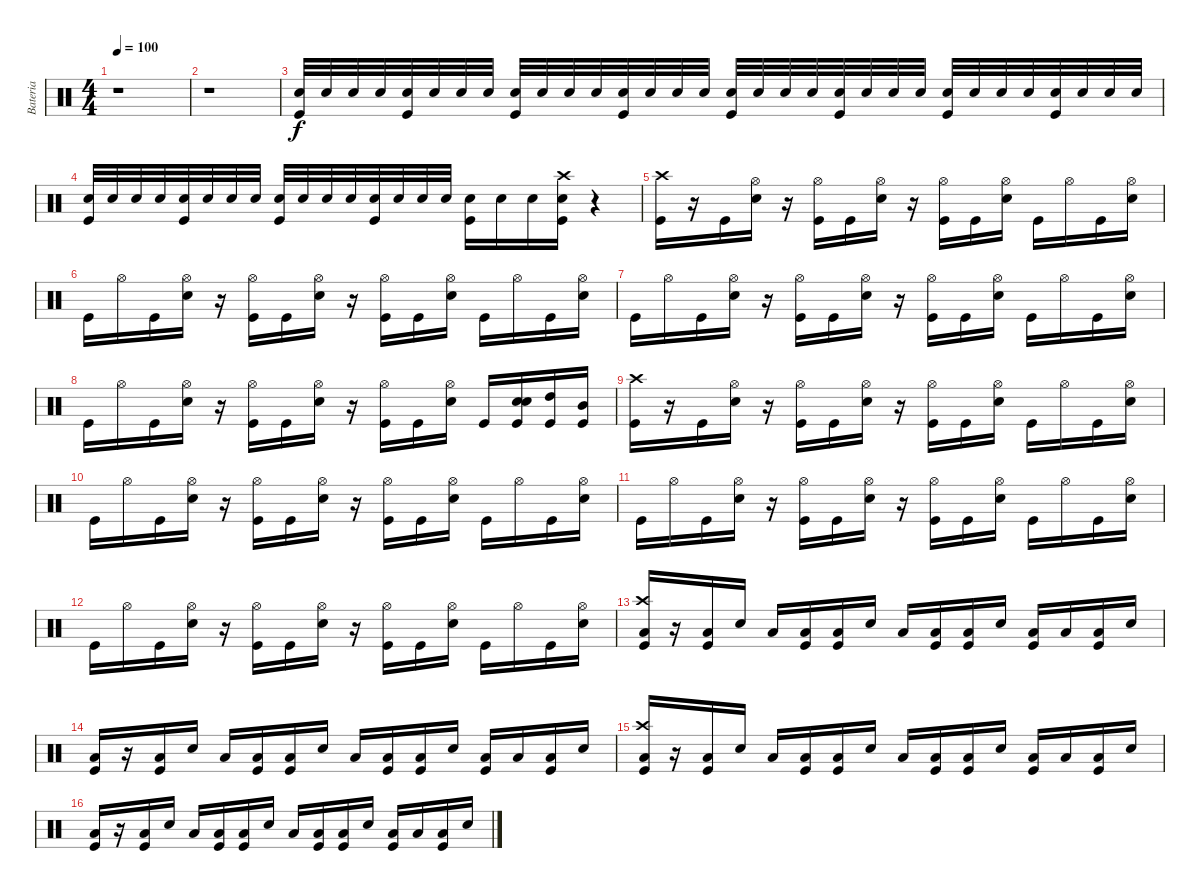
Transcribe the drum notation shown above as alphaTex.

\track ("Bateria" "Bateria") {instrument percussion}
\staff {score}
\articulation defaults
\ts (4 4)
\tempo 100
\clef neutral
\ks c
r.1{dy f} |
r.1 |
("Snare (hit) 2" "Kick (hit)").32 "Snare (hit) 2".32 "Snare (hit) 2".32 "Snare (hit) 2".32 ("Snare (hit) 2" "Kick (hit)").32 "Snare (hit) 2".32 "Snare (hit) 2".32 "Snare (hit) 2".32 ("Snare (hit) 2" "Kick (hit)").32 "Snare (hit) 2".32 "Snare (hit) 2".32 "Snare (hit) 2".32 ("Snare (hit) 2" "Kick (hit)").32 "Snare (hit) 2".32 "Snare (hit) 2".32 "Snare (hit) 2".32 ("Snare (hit) 2" "Kick (hit)").32 "Snare (hit) 2".32 "Snare (hit) 2".32 "Snare (hit) 2".32 ("Snare (hit) 2" "Kick (hit)").32 "Snare (hit) 2".32 "Snare (hit) 2".32 "Snare (hit) 2".32 ("Snare (hit) 2" "Kick (hit)").32 "Snare (hit) 2".32 "Snare (hit) 2".32 "Snare (hit) 2".32 ("Snare (hit) 2" "Kick (hit)").32 "Snare (hit) 2".32 "Snare (hit) 2".32 "Snare (hit) 2".32 |
("Snare (hit) 2" "Kick (hit)").32 "Snare (hit) 2".32 "Snare (hit) 2".32 "Snare (hit) 2".32 ("Snare (hit) 2" "Kick (hit)").32 "Snare (hit) 2".32 "Snare (hit) 2".32 "Snare (hit) 2".32 ("Snare (hit) 2" "Kick (hit)").32 "Snare (hit) 2".32 "Snare (hit) 2".32 "Snare (hit) 2".32 ("Snare (hit) 2" "Kick (hit)").32 "Snare (hit) 2".32 "Snare (hit) 2".32 "Snare (hit) 2".32 ("Snare (hit) 2" "Kick (hit)").16 "Snare (hit) 2".16 "Snare (hit) 2".16 ("Snare (hit) 2" "Crash high (hit)" "Kick (hit)").16 r.4 |
("Crash high (hit)" "Kick (hit)").16 r.16 "Kick (hit)".16 ("Snare (hit) 2" "Hi-Hat (open)").16 r.16 ("Hi-Hat (open)" "Kick (hit)").16 "Kick (hit)".16 ("Snare (hit) 2" "Hi-Hat (open)").16 r.16 ("Hi-Hat (open)" "Kick (hit)").16 "Kick (hit)".16 ("Snare (hit) 2" "Hi-Hat (open)").16 "Kick (hit)".16 "Hi-Hat (open)".16 "Kick (hit)".16 ("Snare (hit) 2" "Hi-Hat (open)").16 |
"Kick (hit)".16 "Hi-Hat (open)".16 "Kick (hit)".16 ("Snare (hit) 2" "Hi-Hat (open)").16 r.16 ("Hi-Hat (open)" "Kick (hit)").16 "Kick (hit)".16 ("Snare (hit) 2" "Hi-Hat (open)").16 r.16 ("Hi-Hat (open)" "Kick (hit)").16 "Kick (hit)".16 ("Snare (hit) 2" "Hi-Hat (open)").16 "Kick (hit)".16 "Hi-Hat (open)".16 "Kick (hit)".16 ("Snare (hit) 2" "Hi-Hat (open)").16 |
"Kick (hit)".16 "Hi-Hat (open)".16 "Kick (hit)".16 ("Snare (hit) 2" "Hi-Hat (open)").16 r.16 ("Hi-Hat (open)" "Kick (hit)").16 "Kick (hit)".16 ("Snare (hit) 2" "Hi-Hat (open)").16 r.16 ("Hi-Hat (open)" "Kick (hit)").16 "Kick (hit)".16 ("Snare (hit) 2" "Hi-Hat (open)").16 "Kick (hit)".16 "Hi-Hat (open)".16 "Kick (hit)".16 ("Snare (hit) 2" "Hi-Hat (open)").16 |
"Kick (hit)".16 "Hi-Hat (open)".16 "Kick (hit)".16 ("Snare (hit) 2" "Hi-Hat (open)").16 r.16 ("Hi-Hat (open)" "Kick (hit)").16 "Kick (hit)".16 ("Snare (hit) 2" "Hi-Hat (open)").16 r.16 ("Hi-Hat (open)" "Kick (hit)").16 "Kick (hit)".16 ("Snare (hit) 2" "Hi-Hat (open)").16 "Kick (hit)".16 ("Snare (hit) 2" "Snare (hit) 2" "Kick (hit)").16 ("Kick (hit)" "High Tom (hit)").16 ("Kick (hit)" "Mid Tom (hit)").16 |
("Crash high (hit)" "Kick (hit)").16 r.16 "Kick (hit)".16 ("Snare (hit) 2" "Hi-Hat (open)").16 r.16 ("Hi-Hat (open)" "Kick (hit)").16 "Kick (hit)".16 ("Snare (hit) 2" "Hi-Hat (open)").16 r.16 ("Hi-Hat (open)" "Kick (hit)").16 "Kick (hit)".16 ("Snare (hit) 2" "Hi-Hat (open)").16 "Kick (hit)".16 "Hi-Hat (open)".16 "Kick (hit)".16 ("Snare (hit) 2" "Hi-Hat (open)").16 |
"Kick (hit)".16 "Hi-Hat (open)".16 "Kick (hit)".16 ("Snare (hit) 2" "Hi-Hat (open)").16 r.16 ("Hi-Hat (open)" "Kick (hit)").16 "Kick (hit)".16 ("Snare (hit) 2" "Hi-Hat (open)").16 r.16 ("Hi-Hat (open)" "Kick (hit)").16 "Kick (hit)".16 ("Snare (hit) 2" "Hi-Hat (open)").16 "Kick (hit)".16 "Hi-Hat (open)".16 "Kick (hit)".16 ("Snare (hit) 2" "Hi-Hat (open)").16 |
"Kick (hit)".16 "Hi-Hat (open)".16 "Kick (hit)".16 ("Snare (hit) 2" "Hi-Hat (open)").16 r.16 ("Hi-Hat (open)" "Kick (hit)").16 "Kick (hit)".16 ("Snare (hit) 2" "Hi-Hat (open)").16 r.16 ("Hi-Hat (open)" "Kick (hit)").16 "Kick (hit)".16 ("Snare (hit) 2" "Hi-Hat (open)").16 "Kick (hit)".16 "Hi-Hat (open)".16 "Kick (hit)".16 ("Snare (hit) 2" "Hi-Hat (open)").16 |
"Kick (hit)".16 "Hi-Hat (open)".16 "Kick (hit)".16 ("Snare (hit) 2" "Hi-Hat (open)").16 r.16 ("Hi-Hat (open)" "Kick (hit)").16 "Kick (hit)".16 ("Snare (hit) 2" "Hi-Hat (open)").16 r.16 ("Hi-Hat (open)" "Kick (hit)").16 "Kick (hit)".16 ("Snare (hit) 2" "Hi-Hat (open)").16 "Kick (hit)".16 "Hi-Hat (open)".16 "Kick (hit)".16 ("Snare (hit) 2" "Hi-Hat (open)").16 |
("Crash high (hit)" "Kick (hit)" "Low Tom (hit)").16 r.16 ("Kick (hit)" "Low Tom (hit)").16 "Snare (hit) 2".16 "Low Tom (hit)".16 ("Kick (hit)" "Low Tom (hit)").16 ("Kick (hit)" "Low Tom (hit)").16 "Snare (hit) 2".16 "Low Tom (hit)".16 ("Kick (hit)" "Low Tom (hit)").16 ("Kick (hit)" "Low Tom (hit)").16 "Snare (hit) 2".16 ("Kick (hit)" "Low Tom (hit)").16 "Low Tom (hit)".16 ("Kick (hit)" "Low Tom (hit)").16 "Snare (hit) 2".16 |
("Kick (hit)" "Low Tom (hit)").16 r.16 ("Kick (hit)" "Low Tom (hit)").16 "Snare (hit) 2".16 "Low Tom (hit)".16 ("Kick (hit)" "Low Tom (hit)").16 ("Kick (hit)" "Low Tom (hit)").16 "Snare (hit) 2".16 "Low Tom (hit)".16 ("Kick (hit)" "Low Tom (hit)").16 ("Kick (hit)" "Low Tom (hit)").16 "Snare (hit) 2".16 ("Kick (hit)" "Low Tom (hit)").16 "Low Tom (hit)".16 ("Kick (hit)" "Low Tom (hit)").16 "Snare (hit) 2".16 |
("Crash high (hit)" "Kick (hit)" "Low Tom (hit)").16 r.16 ("Kick (hit)" "Low Tom (hit)").16 "Snare (hit) 2".16 "Low Tom (hit)".16 ("Kick (hit)" "Low Tom (hit)").16 ("Kick (hit)" "Low Tom (hit)").16 "Snare (hit) 2".16 "Low Tom (hit)".16 ("Kick (hit)" "Low Tom (hit)").16 ("Kick (hit)" "Low Tom (hit)").16 "Snare (hit) 2".16 ("Kick (hit)" "Low Tom (hit)").16 "Low Tom (hit)".16 ("Kick (hit)" "Low Tom (hit)").16 "Snare (hit) 2".16 |
("Kick (hit)" "Low Tom (hit)").16 r.16 ("Kick (hit)" "Low Tom (hit)").16 "Snare (hit) 2".16 "Low Tom (hit)".16 ("Kick (hit)" "Low Tom (hit)").16 ("Kick (hit)" "Low Tom (hit)").16 "Snare (hit) 2".16 "Low Tom (hit)".16 ("Kick (hit)" "Low Tom (hit)").16 ("Kick (hit)" "Low Tom (hit)").16 "Snare (hit) 2".16 ("Kick (hit)" "Low Tom (hit)").16 "Low Tom (hit)".16 ("Kick (hit)" "Low Tom (hit)").16 "Snare (hit) 2".16
